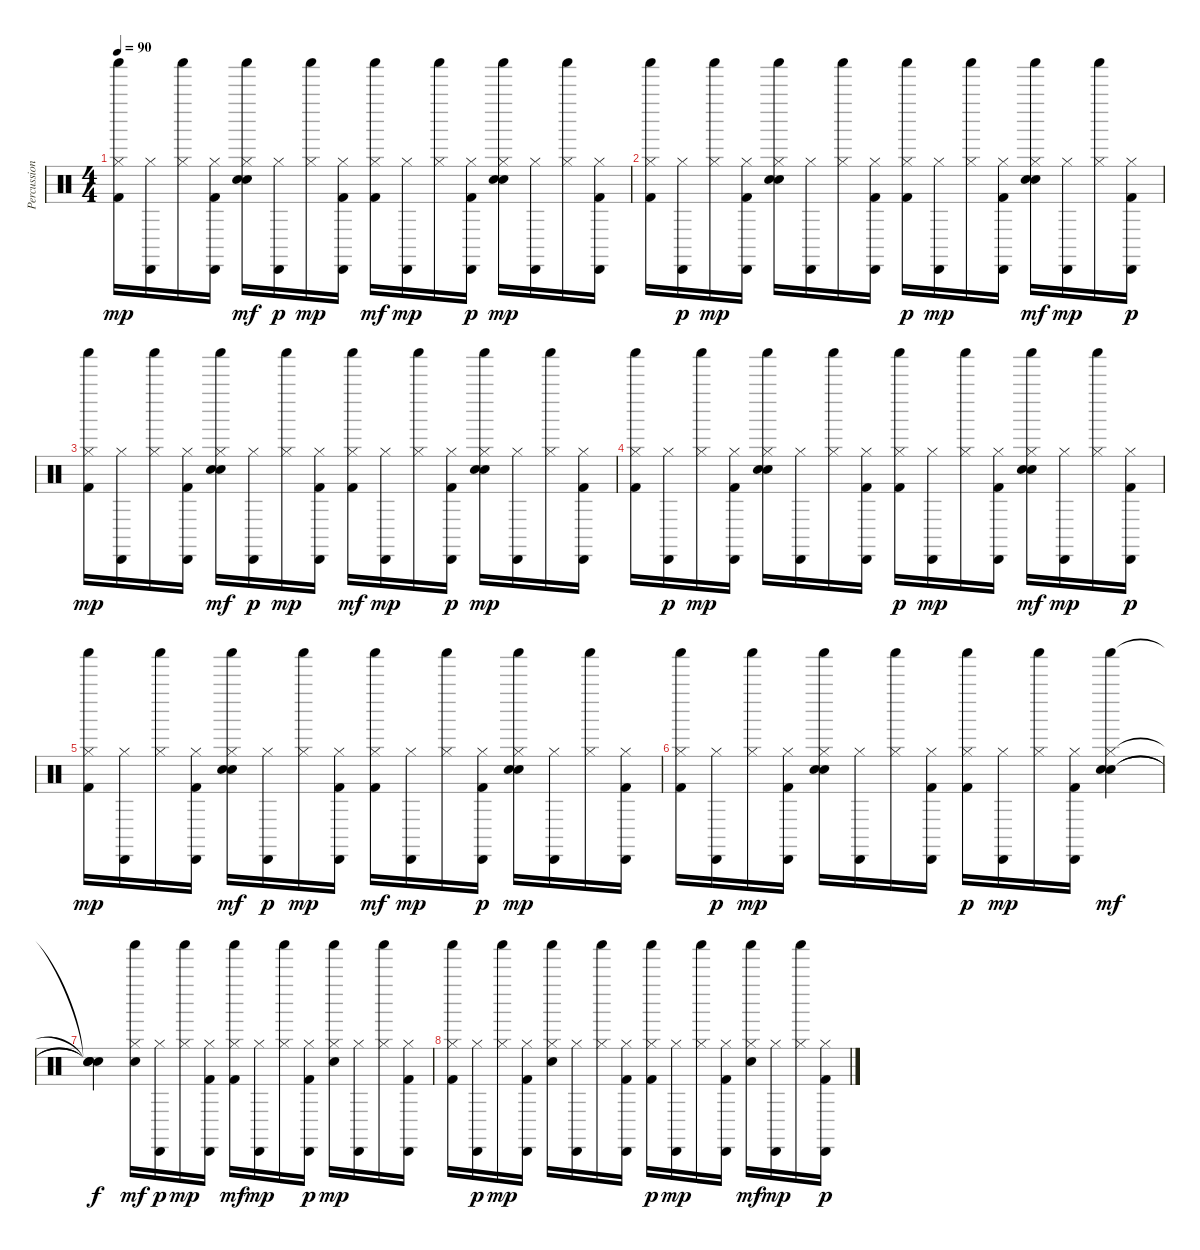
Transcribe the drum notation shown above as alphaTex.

\track ("Percussions" "Percussion") {instrument percussion}
\staff {score}
\articulation defaults
\ts (4 4)
\tempo 90
\clef neutral
\ks c
("Kick (hit) 2" "Hi-Hat (closed)" "Shaker (hit)").16{dy mp} ("Hi-Hat (closed)" "Cabasa (hit)").16 ("Hi-Hat (closed)" "Shaker (hit)").16 ("Kick (hit) 2" "Hi-Hat (closed)" "Cabasa (hit)").16 ("Hand Clap (hit)" "Electric Snare (hit)" "Hi-Hat (closed)" "Shaker (hit)").16{dy mf} ("Hi-Hat (closed)" "Cabasa (hit)").16{dy p} ("Hi-Hat (closed)" "Shaker (hit)").16{dy mp} ("Kick (hit) 2" "Hi-Hat (closed)" "Cabasa (hit)").16 ("Kick (hit) 2" "Hi-Hat (closed)" "Shaker (hit)").16{dy mf} ("Hi-Hat (closed)" "Cabasa (hit)").16{dy mp} ("Hi-Hat (closed)" "Shaker (hit)").16 ("Kick (hit) 2" "Hi-Hat (closed)" "Cabasa (hit)").16{dy p} ("Hand Clap (hit)" "Electric Snare (hit)" "Hi-Hat (closed)" "Shaker (hit)").16{dy mp} ("Hi-Hat (closed)" "Cabasa (hit)").16 ("Hi-Hat (closed)" "Shaker (hit)").16 ("Kick (hit) 2" "Hi-Hat (closed)" "Cabasa (hit)").16 |
("Kick (hit) 2" "Hi-Hat (closed)" "Shaker (hit)").16 ("Hi-Hat (closed)" "Cabasa (hit)").16{dy p} ("Hi-Hat (closed)" "Shaker (hit)").16{dy mp} ("Kick (hit) 2" "Hi-Hat (closed)" "Cabasa (hit)").16 ("Hand Clap (hit)" "Electric Snare (hit)" "Hi-Hat (closed)" "Shaker (hit)").16 ("Hi-Hat (closed)" "Cabasa (hit)").16 ("Hi-Hat (closed)" "Shaker (hit)").16 ("Kick (hit) 2" "Hi-Hat (closed)" "Cabasa (hit)").16 ("Kick (hit) 2" "Hi-Hat (closed)" "Shaker (hit)").16{dy p} ("Hi-Hat (closed)" "Cabasa (hit)").16{dy mp} ("Hi-Hat (closed)" "Shaker (hit)").16 ("Kick (hit) 2" "Hi-Hat (closed)" "Cabasa (hit)").16 ("Hand Clap (hit)" "Electric Snare (hit)" "Hi-Hat (closed)" "Shaker (hit)").16{dy mf} ("Hi-Hat (closed)" "Cabasa (hit)").16{dy mp} ("Hi-Hat (closed)" "Shaker (hit)").16 ("Kick (hit) 2" "Hi-Hat (closed)" "Cabasa (hit)").16{dy p} |
("Kick (hit) 2" "Hi-Hat (closed)" "Shaker (hit)").16{dy mp} ("Hi-Hat (closed)" "Cabasa (hit)").16 ("Hi-Hat (closed)" "Shaker (hit)").16 ("Kick (hit) 2" "Hi-Hat (closed)" "Cabasa (hit)").16 ("Hand Clap (hit)" "Electric Snare (hit)" "Hi-Hat (closed)" "Shaker (hit)").16{dy mf} ("Hi-Hat (closed)" "Cabasa (hit)").16{dy p} ("Hi-Hat (closed)" "Shaker (hit)").16{dy mp} ("Kick (hit) 2" "Hi-Hat (closed)" "Cabasa (hit)").16 ("Kick (hit) 2" "Hi-Hat (closed)" "Shaker (hit)").16{dy mf} ("Hi-Hat (closed)" "Cabasa (hit)").16{dy mp} ("Hi-Hat (closed)" "Shaker (hit)").16 ("Kick (hit) 2" "Hi-Hat (closed)" "Cabasa (hit)").16{dy p} ("Hand Clap (hit)" "Electric Snare (hit)" "Hi-Hat (closed)" "Shaker (hit)").16{dy mp} ("Hi-Hat (closed)" "Cabasa (hit)").16 ("Hi-Hat (closed)" "Shaker (hit)").16 ("Kick (hit) 2" "Hi-Hat (closed)" "Cabasa (hit)").16 |
("Kick (hit) 2" "Hi-Hat (closed)" "Shaker (hit)").16 ("Hi-Hat (closed)" "Cabasa (hit)").16{dy p} ("Hi-Hat (closed)" "Shaker (hit)").16{dy mp} ("Kick (hit) 2" "Hi-Hat (closed)" "Cabasa (hit)").16 ("Hand Clap (hit)" "Electric Snare (hit)" "Hi-Hat (closed)" "Shaker (hit)").16 ("Hi-Hat (closed)" "Cabasa (hit)").16 ("Hi-Hat (closed)" "Shaker (hit)").16 ("Kick (hit) 2" "Hi-Hat (closed)" "Cabasa (hit)").16 ("Kick (hit) 2" "Hi-Hat (closed)" "Shaker (hit)").16{dy p} ("Hi-Hat (closed)" "Cabasa (hit)").16{dy mp} ("Hi-Hat (closed)" "Shaker (hit)").16 ("Kick (hit) 2" "Hi-Hat (closed)" "Cabasa (hit)").16 ("Hand Clap (hit)" "Electric Snare (hit)" "Hi-Hat (closed)" "Shaker (hit)").16{dy mf} ("Hi-Hat (closed)" "Cabasa (hit)").16{dy mp} ("Hi-Hat (closed)" "Shaker (hit)").16 ("Kick (hit) 2" "Hi-Hat (closed)" "Cabasa (hit)").16{dy p} |
("Kick (hit) 2" "Hi-Hat (closed)" "Shaker (hit)").16{dy mp} ("Hi-Hat (closed)" "Cabasa (hit)").16 ("Hi-Hat (closed)" "Shaker (hit)").16 ("Kick (hit) 2" "Hi-Hat (closed)" "Cabasa (hit)").16 ("Hand Clap (hit)" "Electric Snare (hit)" "Hi-Hat (closed)" "Shaker (hit)").16{dy mf} ("Hi-Hat (closed)" "Cabasa (hit)").16{dy p} ("Hi-Hat (closed)" "Shaker (hit)").16{dy mp} ("Kick (hit) 2" "Hi-Hat (closed)" "Cabasa (hit)").16 ("Kick (hit) 2" "Hi-Hat (closed)" "Shaker (hit)").16{dy mf} ("Hi-Hat (closed)" "Cabasa (hit)").16{dy mp} ("Hi-Hat (closed)" "Shaker (hit)").16 ("Kick (hit) 2" "Hi-Hat (closed)" "Cabasa (hit)").16{dy p} ("Hand Clap (hit)" "Electric Snare (hit)" "Hi-Hat (closed)" "Shaker (hit)").16{dy mp} ("Hi-Hat (closed)" "Cabasa (hit)").16 ("Hi-Hat (closed)" "Shaker (hit)").16 ("Kick (hit) 2" "Hi-Hat (closed)" "Cabasa (hit)").16 |
("Kick (hit) 2" "Hi-Hat (closed)" "Shaker (hit)").16 ("Hi-Hat (closed)" "Cabasa (hit)").16{dy p} ("Hi-Hat (closed)" "Shaker (hit)").16{dy mp} ("Kick (hit) 2" "Hi-Hat (closed)" "Cabasa (hit)").16 ("Hand Clap (hit)" "Electric Snare (hit)" "Hi-Hat (closed)" "Shaker (hit)").16 ("Hi-Hat (closed)" "Cabasa (hit)").16 ("Hi-Hat (closed)" "Shaker (hit)").16 ("Kick (hit) 2" "Hi-Hat (closed)" "Cabasa (hit)").16 ("Kick (hit) 2" "Hi-Hat (closed)" "Shaker (hit)").16{dy p} ("Hi-Hat (closed)" "Cabasa (hit)").16{dy mp} ("Hi-Hat (closed)" "Shaker (hit)").16 ("Kick (hit) 2" "Hi-Hat (closed)" "Cabasa (hit)").16 ("Hand Clap (hit)" "Electric Snare (hit)" "Hi-Hat (closed)" "Shaker (hit)").4{dy mf} |
("Snare (hit)"{t} "Snare (hit)"{t} "Snare (hit)"{t} "Snare (hit)"{t}).4{dy f} ("Electric Snare (hit)" "Hi-Hat (closed)" "Shaker (hit)").16{dy mf} ("Hi-Hat (closed)" "Cabasa (hit)").16{dy p} ("Hi-Hat (closed)" "Shaker (hit)").16{dy mp} ("Kick (hit) 2" "Hi-Hat (closed)" "Cabasa (hit)").16 ("Kick (hit) 2" "Hi-Hat (closed)" "Shaker (hit)").16{dy mf} ("Hi-Hat (closed)" "Cabasa (hit)").16{dy mp} ("Hi-Hat (closed)" "Shaker (hit)").16 ("Kick (hit) 2" "Hi-Hat (closed)" "Cabasa (hit)").16{dy p} ("Electric Snare (hit)" "Hi-Hat (closed)" "Shaker (hit)").16{dy mp} ("Hi-Hat (closed)" "Cabasa (hit)").16 ("Hi-Hat (closed)" "Shaker (hit)").16 ("Kick (hit) 2" "Hi-Hat (closed)" "Cabasa (hit)").16 |
("Kick (hit) 2" "Hi-Hat (closed)" "Shaker (hit)").16 ("Hi-Hat (closed)" "Cabasa (hit)").16{dy p} ("Hi-Hat (closed)" "Shaker (hit)").16{dy mp} ("Kick (hit) 2" "Hi-Hat (closed)" "Cabasa (hit)").16 ("Electric Snare (hit)" "Hi-Hat (closed)" "Shaker (hit)").16 ("Hi-Hat (closed)" "Cabasa (hit)").16 ("Hi-Hat (closed)" "Shaker (hit)").16 ("Kick (hit) 2" "Hi-Hat (closed)" "Cabasa (hit)").16 ("Kick (hit) 2" "Hi-Hat (closed)" "Shaker (hit)").16{dy p} ("Hi-Hat (closed)" "Cabasa (hit)").16{dy mp} ("Hi-Hat (closed)" "Shaker (hit)").16 ("Kick (hit) 2" "Hi-Hat (closed)" "Cabasa (hit)").16 ("Electric Snare (hit)" "Hi-Hat (closed)" "Shaker (hit)").16{dy mf} ("Hi-Hat (closed)" "Cabasa (hit)").16{dy mp} ("Hi-Hat (closed)" "Shaker (hit)").16 ("Kick (hit) 2" "Hi-Hat (closed)" "Cabasa (hit)").16{dy p}
